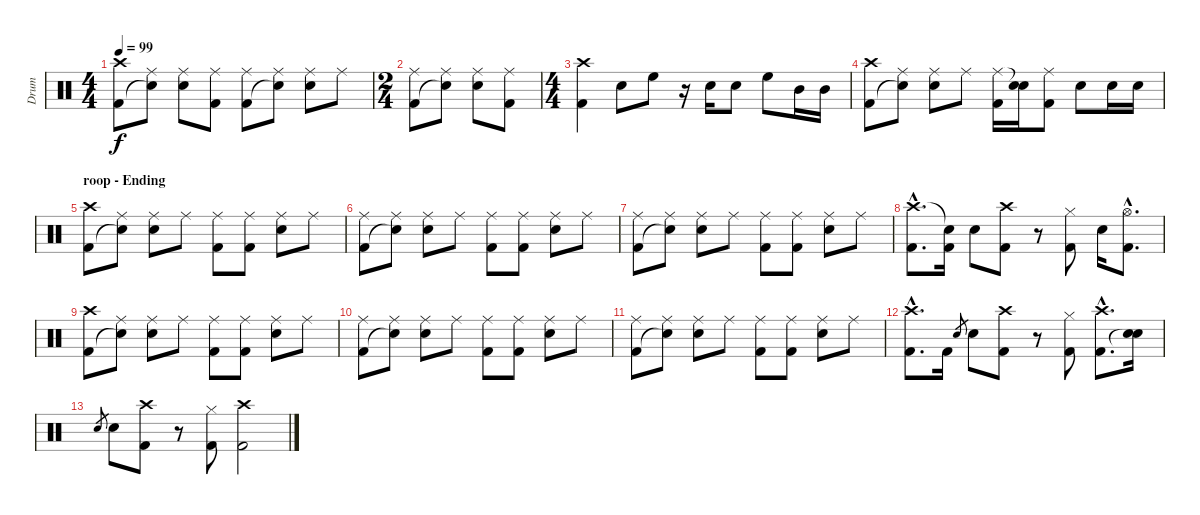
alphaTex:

\track ("Drum" "Drum") {instrument percussion}
\staff {score}
\articulation defaults
\ts (4 4)
\tempo 99
\clef neutral
\ks c
("Crash high (hit)" "Kick (hit) 2").8{dy f} ("Ride (middle)" "Snare (hit)"{t}).8 ("Ride (middle)" "Snare (hit) 2").8 ("Ride (middle)" "Kick (hit) 2").8 ("Ride (middle)" "Kick (hit) 2").8 ("Ride (middle)" "Snare (hit)"{t}).8 ("Ride (middle)" "Snare (hit) 2").8 "Ride (middle)".8 |
\ts (2 4)
("Ride (middle)" "Kick (hit) 2").8 ("Ride (middle)" "Snare (hit)"{t}).8 ("Ride (middle)" "Snare (hit) 2").8 ("Ride (middle)" "Kick (hit) 2").8 |
\ts (4 4)
("Crash high (hit)" "Kick (hit) 2").4 "Snare (hit) 2".8 "High Floor Tom (hit)".8 r.16 "Snare (hit) 2".16 "Snare (hit) 2".8 "High Floor Tom (hit)".8 "Mid Tom (hit)".16 "Mid Tom (hit)".16 |
("Crash high (hit)" "Kick (hit) 2").8 ("Ride (middle)" "Snare (hit)"{t}).8 ("Ride (middle)" "Snare (hit) 2").8 "Ride (middle)".8 ("Ride (middle)" "Kick (hit) 2").16 ("Snare (hit)"{t} "Snare (hit) 2").16 ("Ride (middle)" "Kick (hit) 2").8 "Snare (hit) 2".8 "Snare (hit) 2".16 "Snare (hit) 2".16 |
\section ("" "roop - Ending")
("Crash high (hit)" "Kick (hit) 2").8 ("Ride (middle)" "Snare (hit)"{t}).8 ("Ride (middle)" "Snare (hit) 2").8 "Ride (middle)".8 ("Ride (middle)" "Kick (hit) 2").8 ("Ride (middle)" "Kick (hit) 2").8 ("Ride (middle)" "Snare (hit) 2").8 "Ride (middle)".8 |
("Ride (middle)" "Kick (hit) 2").8 ("Ride (middle)" "Snare (hit)"{t}).8 ("Ride (middle)" "Snare (hit) 2").8 "Ride (middle)".8 ("Ride (middle)" "Kick (hit) 2").8 ("Ride (middle)" "Kick (hit) 2").8 ("Ride (middle)" "Snare (hit) 2").8 "Ride (middle)".8 |
("Ride (middle)" "Kick (hit) 2").8 ("Ride (middle)" "Snare (hit)"{t}).8 ("Ride (middle)" "Snare (hit) 2").8 "Ride (middle)".8 ("Ride (middle)" "Kick (hit) 2").8 ("Ride (middle)" "Kick (hit) 2").8 ("Ride (middle)" "Snare (hit) 2").8 "Ride (middle)".8 |
("Crash high (hit)"{hac} "Kick (hit) 2"{hac}).8{d} ("Snare (hit)"{t} "Kick (hit) 2").16 "Snare (hit) 2".8 ("Crash high (hit)" "Kick (hit) 2").8 r.8 ("Hi-Hat (closed)" "Kick (hit) 2").8 "Snare (hit) 2".16 ("Hi-Hat (open)"{hac} "Kick (hit) 2"{hac}).8{d} |
("Crash high (hit)" "Kick (hit) 2").8 ("Ride (middle)" "Snare (hit)"{t}).8 ("Ride (middle)" "Snare (hit) 2").8 "Ride (middle)".8 ("Ride (middle)" "Kick (hit) 2").8 ("Ride (middle)" "Kick (hit) 2").8 ("Ride (middle)" "Snare (hit) 2").8 "Ride (middle)".8 |
("Ride (middle)" "Kick (hit) 2").8 ("Ride (middle)" "Snare (hit)"{t}).8 ("Ride (middle)" "Snare (hit) 2").8 "Ride (middle)".8 ("Ride (middle)" "Kick (hit) 2").8 ("Ride (middle)" "Kick (hit) 2").8 ("Ride (middle)" "Snare (hit) 2").8 "Ride (middle)".8 |
("Ride (middle)" "Kick (hit) 2").8 ("Ride (middle)" "Snare (hit)"{t}).8 ("Ride (middle)" "Snare (hit) 2").8 "Ride (middle)".8 ("Ride (middle)" "Kick (hit) 2").8 ("Ride (middle)" "Kick (hit) 2").8 ("Ride (middle)" "Snare (hit) 2").8 "Ride (middle)".8 |
("Crash high (hit)"{hac} "Kick (hit) 2"{hac}).8{d} "Kick (hit) 2".16 "Snare (hit) 2".8{gr} "Snare (hit) 2".8 ("Crash high (hit)" "Kick (hit) 2").8 r.8 ("Hi-Hat (closed)" "Kick (hit) 2").8 ("Crash high (hit)"{hac} "Kick (hit) 2"{hac}).8{d} ("Snare (hit) 2" "Snare (hit)"{t}).16 |
"Snare (hit) 2".8{gr} "Snare (hit) 2".8 ("Crash high (hit)" "Kick (hit) 2").8 r.8 ("Hi-Hat (closed)" "Kick (hit) 2").8 ("Crash high (hit)" "Kick (hit) 2").2
